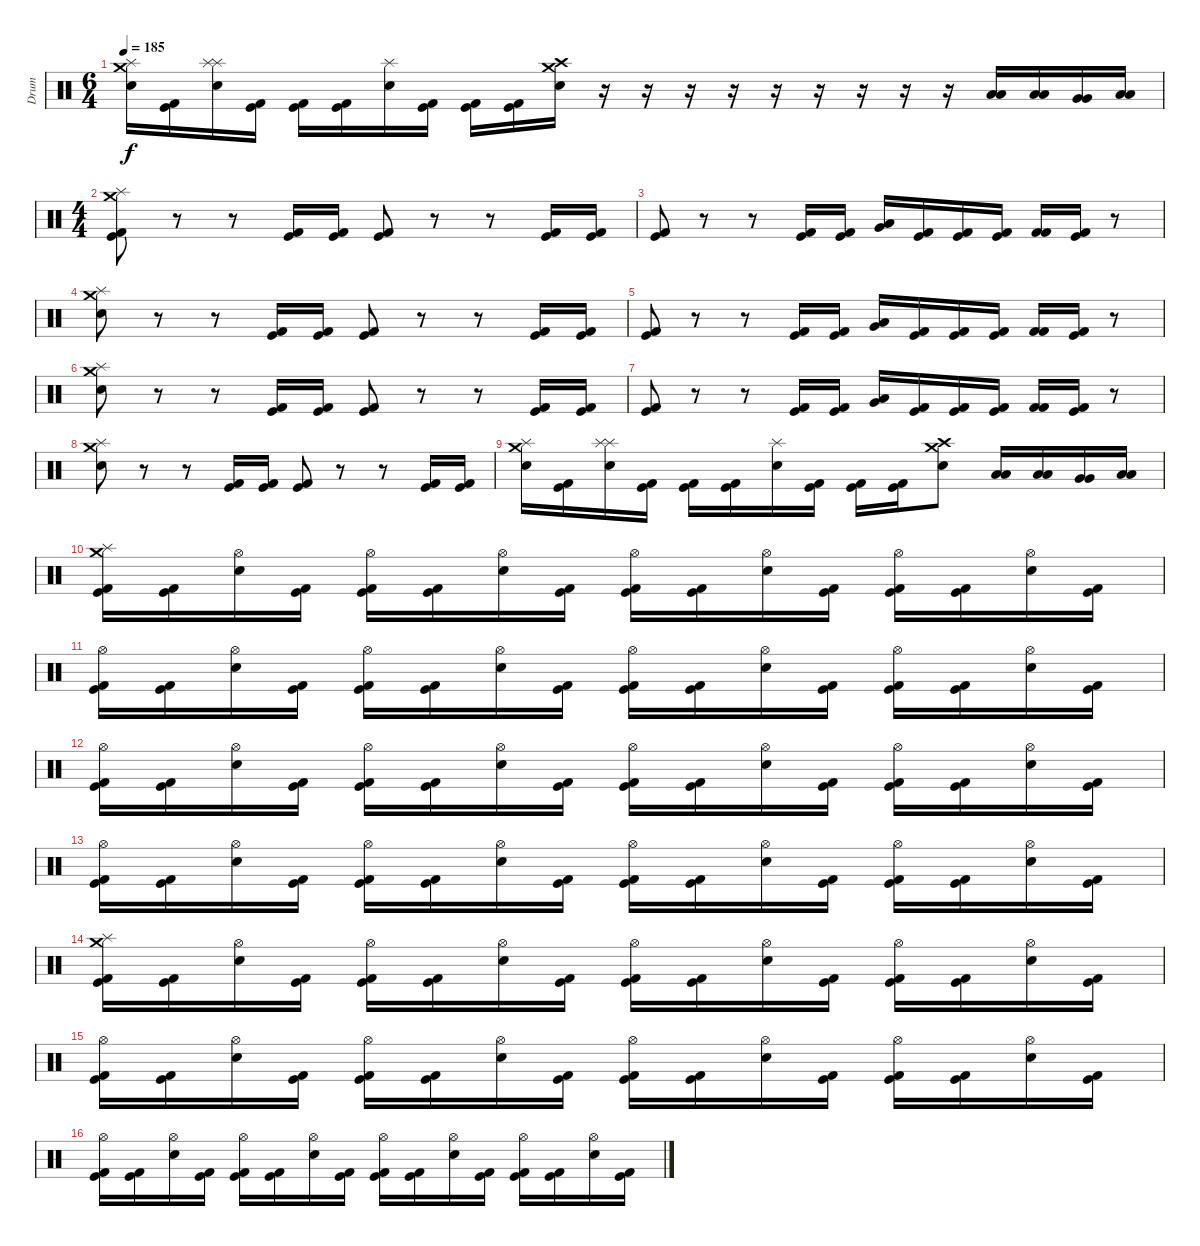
\track ("Drum" "Drum") {instrument percussion}
\staff {score}
\articulation defaults
\ts (6 4)
\tempo 185
\clef neutral
\ks c
("Crash medium (hit)" "Splash (hit)" "Snare (hit) 2").16{dy f} ("Kick (hit)" "Kick (hit) 2").16 ("Splash (hit)" "Splash (hit)" "Snare (hit) 2").16 ("Kick (hit)" "Kick (hit) 2").16 ("Kick (hit)" "Kick (hit) 2").16 ("Kick (hit)" "Kick (hit) 2").16 ("Splash (hit)" "Snare (hit) 2").16 ("Kick (hit)" "Kick (hit) 2").16 ("Kick (hit)" "Kick (hit) 2").16 ("Kick (hit)" "Kick (hit) 2").16 ("Crash high (hit)" "Crash medium (hit)" "Snare (hit) 2").16 r.16 r.16 r.16 r.16 r.16 r.16 r.16 r.16 r.16 ("Low Tom (hit)" "Low Tom (hit)").16 ("Low Tom (hit)" "Low Tom (hit)").16 ("Very Low Tom (hit)" "Very Low Tom (hit)").16 ("Low Floor Tom (hit)" "Low Floor Tom (hit)").16 |
\ts (4 4)
("Crash medium (hit)" "Splash (hit)" "Kick (hit)" "Kick (hit) 2").8 r.8 r.8 ("Kick (hit)" "Kick (hit) 2").16 ("Kick (hit)" "Kick (hit) 2").16 ("Kick (hit)" "Kick (hit) 2").8 r.8 r.8 ("Kick (hit)" "Kick (hit) 2").16 ("Kick (hit)" "Kick (hit) 2").16 |
("Kick (hit)" "Kick (hit) 2").8 r.8 r.8 ("Kick (hit)" "Kick (hit) 2").16 ("Kick (hit)" "Kick (hit) 2").16 ("Very Low Tom (hit)" "Low Floor Tom (hit)").16 ("Kick (hit)" "Kick (hit) 2").16 ("Kick (hit)" "Kick (hit) 2").16 ("Kick (hit)" "Kick (hit) 2").16 ("Kick (hit) 2" "Kick (hit) 2").16 ("Kick (hit)" "Kick (hit) 2").16 r.8 |
("Crash medium (hit)" "Splash (hit)" "Snare (hit) 2").8 r.8 r.8 ("Kick (hit)" "Kick (hit) 2").16 ("Kick (hit)" "Kick (hit) 2").16 ("Kick (hit)" "Kick (hit) 2").8 r.8 r.8 ("Kick (hit)" "Kick (hit) 2").16 ("Kick (hit)" "Kick (hit) 2").16 |
("Kick (hit)" "Kick (hit) 2").8 r.8 r.8 ("Kick (hit)" "Kick (hit) 2").16 ("Kick (hit)" "Kick (hit) 2").16 ("Very Low Tom (hit)" "Low Floor Tom (hit)").16 ("Kick (hit)" "Kick (hit) 2").16 ("Kick (hit)" "Kick (hit) 2").16 ("Kick (hit)" "Kick (hit) 2").16 ("Kick (hit) 2" "Kick (hit) 2").16 ("Kick (hit)" "Kick (hit) 2").16 r.8 |
("Crash medium (hit)" "Splash (hit)" "Snare (hit) 2").8 r.8 r.8 ("Kick (hit)" "Kick (hit) 2").16 ("Kick (hit)" "Kick (hit) 2").16 ("Kick (hit)" "Kick (hit) 2").8 r.8 r.8 ("Kick (hit)" "Kick (hit) 2").16 ("Kick (hit)" "Kick (hit) 2").16 |
("Kick (hit)" "Kick (hit) 2").8 r.8 r.8 ("Kick (hit)" "Kick (hit) 2").16 ("Kick (hit)" "Kick (hit) 2").16 ("Very Low Tom (hit)" "Low Floor Tom (hit)").16 ("Kick (hit)" "Kick (hit) 2").16 ("Kick (hit)" "Kick (hit) 2").16 ("Kick (hit)" "Kick (hit) 2").16 ("Kick (hit) 2" "Kick (hit) 2").16 ("Kick (hit)" "Kick (hit) 2").16 r.8 |
("Crash medium (hit)" "Splash (hit)" "Snare (hit) 2").8 r.8 r.8 ("Kick (hit)" "Kick (hit) 2").16 ("Kick (hit)" "Kick (hit) 2").16 ("Kick (hit)" "Kick (hit) 2").8 r.8 r.8 ("Kick (hit)" "Kick (hit) 2").16 ("Kick (hit)" "Kick (hit) 2").16 |
("Crash medium (hit)" "Splash (hit)" "Snare (hit) 2").16 ("Kick (hit)" "Kick (hit) 2").16 ("Splash (hit)" "Splash (hit)" "Snare (hit) 2").16 ("Kick (hit)" "Kick (hit) 2").16 ("Kick (hit)" "Kick (hit) 2").16 ("Kick (hit)" "Kick (hit) 2").16 ("Splash (hit)" "Snare (hit) 2").16 ("Kick (hit)" "Kick (hit) 2").16 ("Kick (hit)" "Kick (hit) 2").16 ("Kick (hit)" "Kick (hit) 2").16 ("Crash high (hit)" "Crash medium (hit)" "Snare (hit) 2").8 ("Low Tom (hit)" "Low Tom (hit)").16 ("Low Tom (hit)" "Low Tom (hit)").16 ("Very Low Tom (hit)" "Very Low Tom (hit)").16 ("Low Floor Tom (hit)" "Low Floor Tom (hit)").16 |
("Crash medium (hit)" "Splash (hit)" "Kick (hit)" "Kick (hit) 2").16 ("Kick (hit)" "Kick (hit) 2").16 ("Hi-Hat (open)" "Snare (hit) 2").16 ("Kick (hit)" "Kick (hit) 2").16 ("Hi-Hat (open)" "Kick (hit)" "Kick (hit) 2").16 ("Kick (hit)" "Kick (hit) 2").16 ("Hi-Hat (open)" "Snare (hit) 2").16 ("Kick (hit)" "Kick (hit) 2").16 ("Hi-Hat (open)" "Kick (hit)" "Kick (hit) 2").16 ("Kick (hit)" "Kick (hit) 2").16 ("Hi-Hat (open)" "Snare (hit) 2").16 ("Kick (hit)" "Kick (hit) 2").16 ("Hi-Hat (open)" "Kick (hit)" "Kick (hit) 2").16 ("Kick (hit)" "Kick (hit) 2").16 ("Hi-Hat (open)" "Snare (hit) 2").16 ("Kick (hit)" "Kick (hit) 2").16 |
("Hi-Hat (open)" "Kick (hit)" "Kick (hit) 2").16 ("Kick (hit)" "Kick (hit) 2").16 ("Hi-Hat (open)" "Snare (hit) 2").16 ("Kick (hit)" "Kick (hit) 2").16 ("Hi-Hat (open)" "Kick (hit)" "Kick (hit) 2").16 ("Kick (hit)" "Kick (hit) 2").16 ("Hi-Hat (open)" "Snare (hit) 2").16 ("Kick (hit)" "Kick (hit) 2").16 ("Hi-Hat (open)" "Kick (hit)" "Kick (hit) 2").16 ("Kick (hit)" "Kick (hit) 2").16 ("Hi-Hat (open)" "Snare (hit) 2").16 ("Kick (hit)" "Kick (hit) 2").16 ("Hi-Hat (open)" "Kick (hit)" "Kick (hit) 2").16 ("Kick (hit)" "Kick (hit) 2").16 ("Hi-Hat (open)" "Snare (hit) 2").16 ("Kick (hit)" "Kick (hit) 2").16 |
("Hi-Hat (open)" "Kick (hit)" "Kick (hit) 2").16 ("Kick (hit)" "Kick (hit) 2").16 ("Hi-Hat (open)" "Snare (hit) 2").16 ("Kick (hit)" "Kick (hit) 2").16 ("Hi-Hat (open)" "Kick (hit)" "Kick (hit) 2").16 ("Kick (hit)" "Kick (hit) 2").16 ("Hi-Hat (open)" "Snare (hit) 2").16 ("Kick (hit)" "Kick (hit) 2").16 ("Hi-Hat (open)" "Kick (hit)" "Kick (hit) 2").16 ("Kick (hit)" "Kick (hit) 2").16 ("Hi-Hat (open)" "Snare (hit) 2").16 ("Kick (hit)" "Kick (hit) 2").16 ("Hi-Hat (open)" "Kick (hit)" "Kick (hit) 2").16 ("Kick (hit)" "Kick (hit) 2").16 ("Hi-Hat (open)" "Snare (hit) 2").16 ("Kick (hit)" "Kick (hit) 2").16 |
("Hi-Hat (open)" "Kick (hit)" "Kick (hit) 2").16 ("Kick (hit)" "Kick (hit) 2").16 ("Hi-Hat (open)" "Snare (hit) 2").16 ("Kick (hit)" "Kick (hit) 2").16 ("Hi-Hat (open)" "Kick (hit)" "Kick (hit) 2").16 ("Kick (hit)" "Kick (hit) 2").16 ("Hi-Hat (open)" "Snare (hit) 2").16 ("Kick (hit)" "Kick (hit) 2").16 ("Hi-Hat (open)" "Kick (hit)" "Kick (hit) 2").16 ("Kick (hit)" "Kick (hit) 2").16 ("Hi-Hat (open)" "Snare (hit) 2").16 ("Kick (hit)" "Kick (hit) 2").16 ("Hi-Hat (open)" "Kick (hit)" "Kick (hit) 2").16 ("Kick (hit)" "Kick (hit) 2").16 ("Hi-Hat (open)" "Snare (hit) 2").16 ("Kick (hit)" "Kick (hit) 2").16 |
("Crash medium (hit)" "Splash (hit)" "Kick (hit)" "Kick (hit) 2").16 ("Kick (hit)" "Kick (hit) 2").16 ("Hi-Hat (open)" "Snare (hit) 2").16 ("Kick (hit)" "Kick (hit) 2").16 ("Hi-Hat (open)" "Kick (hit)" "Kick (hit) 2").16 ("Kick (hit)" "Kick (hit) 2").16 ("Hi-Hat (open)" "Snare (hit) 2").16 ("Kick (hit)" "Kick (hit) 2").16 ("Hi-Hat (open)" "Kick (hit)" "Kick (hit) 2").16 ("Kick (hit)" "Kick (hit) 2").16 ("Hi-Hat (open)" "Snare (hit) 2").16 ("Kick (hit)" "Kick (hit) 2").16 ("Hi-Hat (open)" "Kick (hit)" "Kick (hit) 2").16 ("Kick (hit)" "Kick (hit) 2").16 ("Hi-Hat (open)" "Snare (hit) 2").16 ("Kick (hit)" "Kick (hit) 2").16 |
("Hi-Hat (open)" "Kick (hit)" "Kick (hit) 2").16 ("Kick (hit)" "Kick (hit) 2").16 ("Hi-Hat (open)" "Snare (hit) 2").16 ("Kick (hit)" "Kick (hit) 2").16 ("Hi-Hat (open)" "Kick (hit)" "Kick (hit) 2").16 ("Kick (hit)" "Kick (hit) 2").16 ("Hi-Hat (open)" "Snare (hit) 2").16 ("Kick (hit)" "Kick (hit) 2").16 ("Hi-Hat (open)" "Kick (hit)" "Kick (hit) 2").16 ("Kick (hit)" "Kick (hit) 2").16 ("Hi-Hat (open)" "Snare (hit) 2").16 ("Kick (hit)" "Kick (hit) 2").16 ("Hi-Hat (open)" "Kick (hit)" "Kick (hit) 2").16 ("Kick (hit)" "Kick (hit) 2").16 ("Hi-Hat (open)" "Snare (hit) 2").16 ("Kick (hit)" "Kick (hit) 2").16 |
("Hi-Hat (open)" "Kick (hit)" "Kick (hit) 2").16 ("Kick (hit)" "Kick (hit) 2").16 ("Hi-Hat (open)" "Snare (hit) 2").16 ("Kick (hit)" "Kick (hit) 2").16 ("Hi-Hat (open)" "Kick (hit)" "Kick (hit) 2").16 ("Kick (hit)" "Kick (hit) 2").16 ("Hi-Hat (open)" "Snare (hit) 2").16 ("Kick (hit)" "Kick (hit) 2").16 ("Hi-Hat (open)" "Kick (hit)" "Kick (hit) 2").16 ("Kick (hit)" "Kick (hit) 2").16 ("Hi-Hat (open)" "Snare (hit) 2").16 ("Kick (hit)" "Kick (hit) 2").16 ("Hi-Hat (open)" "Kick (hit)" "Kick (hit) 2").16 ("Kick (hit)" "Kick (hit) 2").16 ("Hi-Hat (open)" "Snare (hit) 2").16 ("Kick (hit)" "Kick (hit) 2").16
